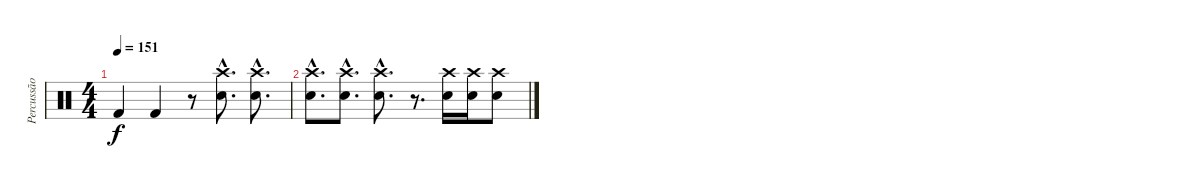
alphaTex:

\track ("Percussão" "Percussão") {instrument percussion}
\staff {score}
\articulation defaults
\ts (4 4)
\tempo 151
\clef neutral
\ks c "Kick (hit) 2".4{dy f} "Kick (hit) 2".4
r.8 ("Snare (hit) 2"{hac} "Crash high (hit)"{hac}).8{d} ("Snare (hit) 2"{hac} "Crash high (hit)"{hac}).8{d} |
("Snare (hit) 2"{hac} "Crash high (hit)"{hac}).8{d} ("Snare (hit) 2"{hac} "Crash high (hit)"{hac}).8{d} ("Snare (hit) 2"{hac} "Crash high (hit)"{hac}).8{d} r.8{d} ("Snare (hit) 2" "Crash high (hit)").16 ("Snare (hit) 2" "Crash high (hit)").16 ("Snare (hit) 2" "Crash high (hit)").8
